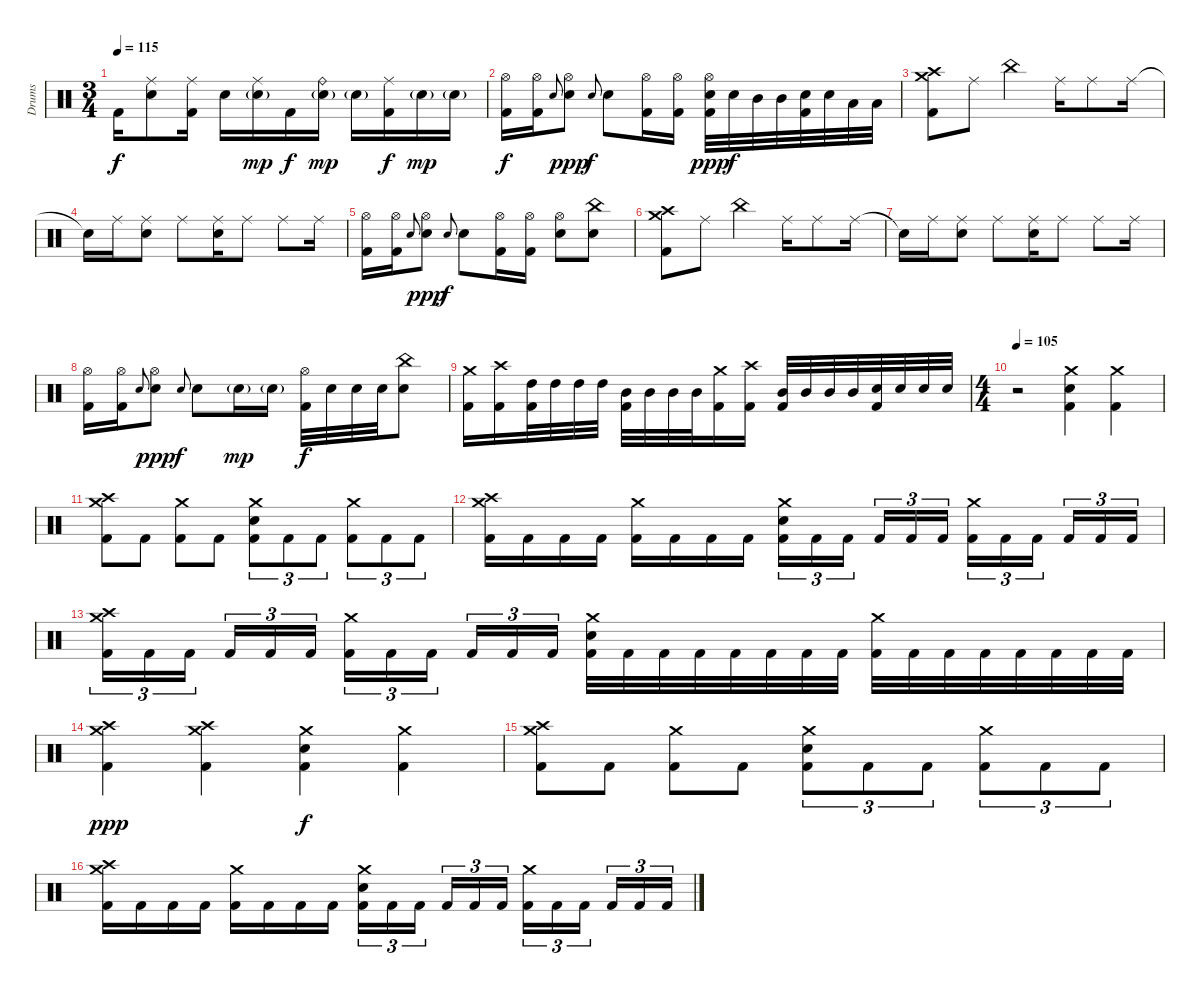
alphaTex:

\track ("Drums" "Drums") {instrument percussion}
\staff {score}
\articulation defaults
\ts (3 4)
\tempo 115
\clef neutral
\ks c "Kick (hit) 2".16{dy f}
("Ride (middle)" "Electric Snare (hit)").8 ("Ride (middle)" "Kick (hit) 2").16 "Electric Snare (hit)".16 ("Ride (middle)" "Electric Snare (hit)"{g}).16{dy mp} "Kick (hit) 2".16{dy f} ("Ride (bell)" "Electric Snare (hit)"{g}).16{dy mp} "Electric Snare (hit)"{g}.16 ("Ride (middle)" "Kick (hit) 2").16{dy f} "Electric Snare (hit)"{g}.16{dy mp} "Electric Snare (hit)"{g}.16 |
("Hi-Hat (open)" "Kick (hit) 2").16{dy f} ("Hi-Hat (open)" "Kick (hit) 2").16 "Electric Snare (hit)".8{gr onbeat} ("Hi-Hat (open)" "Electric Snare (hit)").8{dy ppp} "Electric Snare (hit)".8{gr onbeat dy f} "Electric Snare (hit)".8 ("Hi-Hat (open)" "Kick (hit) 2").16 ("Hi-Hat (open)" "Kick (hit) 2").16 ("Hi-Hat (open)" "Electric Snare (hit)" "Kick (hit) 2").32{dy ppp} "Electric Snare (hit)".32{dy f} "Mid Tom (hit)".32 "Mid Tom (hit)".32 ("Electric Snare (hit)" "Kick (hit) 2").32 "Electric Snare (hit)".32 "Low Tom (hit)".32 "Low Tom (hit)".32 |
("Crash medium (hit)" "Crash high (hit)" "Kick (hit) 2").8 "Ride (middle)".8 "China (hit)".4 "Ride (middle)".16 "Ride (middle)".8 "Ride (middle)".16 |
"Snare (hit)"{t}.16 "Ride (middle)".16 ("Ride (middle)" "Electric Snare (hit)").8 "Ride (middle)".8 ("Ride (middle)" "Electric Snare (hit)").16 "Ride (middle)".8 "Ride (middle)".8 "Ride (middle)".16 |
("Hi-Hat (open)" "Kick (hit) 2").16 ("Hi-Hat (open)" "Kick (hit) 2").16 "Electric Snare (hit)".8{gr onbeat} ("Hi-Hat (open)" "Electric Snare (hit)").8{dy ppp} "Electric Snare (hit)".8{gr onbeat dy f} "Electric Snare (hit)".8 ("Hi-Hat (open)" "Kick (hit) 2").16 ("Hi-Hat (open)" "Kick (hit) 2").16 ("Hi-Hat (open)" "Electric Snare (hit)").8 ("China (hit)" "Electric Snare (hit)").8 |
("Crash medium (hit)" "Crash high (hit)" "Kick (hit) 2").8 "Ride (middle)".8 "China (hit)".4 "Ride (middle)".16 "Ride (middle)".8 "Ride (middle)".16 |
"Snare (hit)"{t}.16 "Ride (middle)".16 ("Ride (middle)" "Electric Snare (hit)").8 "Ride (middle)".8 ("Ride (middle)" "Electric Snare (hit)").16 "Ride (middle)".8 "Ride (middle)".8 "Ride (middle)".16 |
("Hi-Hat (open)" "Kick (hit) 2").16 ("Hi-Hat (open)" "Kick (hit) 2").16 "Electric Snare (hit)".8{gr onbeat} ("Hi-Hat (open)" "Electric Snare (hit)").8{dy ppp} "Electric Snare (hit)".8{gr onbeat dy f} "Electric Snare (hit)".8 "Electric Snare (hit)"{g}.16{dy mp} "Electric Snare (hit)"{g}.16 ("Hi-Hat (open)" "Kick (hit) 2").32{dy f} "Electric Snare (hit)".32 "Electric Snare (hit)".32 "Electric Snare (hit)".32 ("China (hit)" "Electric Snare (hit)").8 |
("Crash medium (hit)" "Kick (hit) 2").16 ("Crash high (hit)" "Kick (hit) 2").16 ("High Tom (hit)" "Kick (hit) 2").32 "High Tom (hit)".32 "High Tom (hit)".32 "High Tom (hit)".32 ("Mid Tom (hit)" "Kick (hit) 2").32 "Mid Tom (hit)".32 "Mid Tom (hit)".32 "Mid Tom (hit)".32 ("Crash medium (hit)" "Kick (hit) 2").16 ("Crash high (hit)" "Kick (hit) 2").16 ("Mid Tom (hit)" "Kick (hit) 2").32 "Mid Tom (hit)".32 "Mid Tom (hit)".32 "Mid Tom (hit)".32 ("Electric Snare (hit)" "Kick (hit) 2").32 "Electric Snare (hit)".32 "Electric Snare (hit)".32 "Electric Snare (hit)".32 |
\ts (4 4)
\tempo 105
r.2 ("Crash medium (hit)" "Electric Snare (hit)" "Kick (hit) 2").4 ("Crash medium (hit)" "Kick (hit) 2").4 |
("Crash medium (hit)" "Crash high (hit)" "Kick (hit) 2").8 "Kick (hit) 2".8 ("Crash medium (hit)" "Kick (hit) 2").8 "Kick (hit) 2".8 ("Crash medium (hit)" "Electric Snare (hit)" "Kick (hit) 2").8{tu (3 2)} "Kick (hit) 2".8{tu (3 2)} "Kick (hit) 2".8{tu (3 2)} ("Crash medium (hit)" "Kick (hit) 2").8{tu (3 2)} "Kick (hit) 2".8{tu (3 2)} "Kick (hit) 2".8{tu (3 2)} |
("Crash medium (hit)" "Crash high (hit)" "Kick (hit) 2").16 "Kick (hit) 2".16 "Kick (hit) 2".16 "Kick (hit) 2".16 ("Crash medium (hit)" "Kick (hit) 2").16 "Kick (hit) 2".16 "Kick (hit) 2".16 "Kick (hit) 2".16 ("Crash medium (hit)" "Electric Snare (hit)" "Kick (hit) 2").16{tu (3 2)} "Kick (hit) 2".16{tu (3 2)} "Kick (hit) 2".16{tu (3 2) beam splitsecondary} "Kick (hit) 2".16{tu (3 2)} "Kick (hit) 2".16{tu (3 2)} "Kick (hit) 2".16{tu (3 2)} ("Crash medium (hit)" "Kick (hit) 2").16{tu (3 2)} "Kick (hit) 2".16{tu (3 2)} "Kick (hit) 2".16{tu (3 2) beam splitsecondary} "Kick (hit) 2".16{tu (3 2)} "Kick (hit) 2".16{tu (3 2)} "Kick (hit) 2".16{tu (3 2)} |
("Crash medium (hit)" "Crash high (hit)" "Kick (hit) 2").16{tu (3 2)} "Kick (hit) 2".16{tu (3 2)} "Kick (hit) 2".16{tu (3 2) beam splitsecondary} "Kick (hit) 2".16{tu (3 2)} "Kick (hit) 2".16{tu (3 2)} "Kick (hit) 2".16{tu (3 2)} ("Crash medium (hit)" "Kick (hit) 2").16{tu (3 2)} "Kick (hit) 2".16{tu (3 2)} "Kick (hit) 2".16{tu (3 2) beam splitsecondary} "Kick (hit) 2".16{tu (3 2)} "Kick (hit) 2".16{tu (3 2)} "Kick (hit) 2".16{tu (3 2)} ("Crash medium (hit)" "Electric Snare (hit)" "Kick (hit) 2").32 "Kick (hit) 2".32 "Kick (hit) 2".32 "Kick (hit) 2".32 "Kick (hit) 2".32 "Kick (hit) 2".32 "Kick (hit) 2".32 "Kick (hit) 2".32 ("Crash medium (hit)" "Kick (hit) 2").32 "Kick (hit) 2".32 "Kick (hit) 2".32 "Kick (hit) 2".32 "Kick (hit) 2".32 "Kick (hit) 2".32 "Kick (hit) 2".32 "Kick (hit) 2".32 |
("Crash medium (hit)" "Crash high (hit)" "Kick (hit) 2").4{dy ppp} ("Crash medium (hit)" "Crash high (hit)" "Kick (hit) 2").4 ("Crash medium (hit)" "Electric Snare (hit)" "Kick (hit) 2").4{dy f} ("Crash medium (hit)" "Kick (hit) 2").4 |
("Crash medium (hit)" "Crash high (hit)" "Kick (hit) 2").8 "Kick (hit) 2".8 ("Crash medium (hit)" "Kick (hit) 2").8 "Kick (hit) 2".8 ("Crash medium (hit)" "Electric Snare (hit)" "Kick (hit) 2").8{tu (3 2)} "Kick (hit) 2".8{tu (3 2)} "Kick (hit) 2".8{tu (3 2)} ("Crash medium (hit)" "Kick (hit) 2").8{tu (3 2)} "Kick (hit) 2".8{tu (3 2)} "Kick (hit) 2".8{tu (3 2)} |
("Crash medium (hit)" "Crash high (hit)" "Kick (hit) 2").16 "Kick (hit) 2".16 "Kick (hit) 2".16 "Kick (hit) 2".16 ("Crash medium (hit)" "Kick (hit) 2").16 "Kick (hit) 2".16 "Kick (hit) 2".16 "Kick (hit) 2".16 ("Crash medium (hit)" "Electric Snare (hit)" "Kick (hit) 2").16{tu (3 2)} "Kick (hit) 2".16{tu (3 2)} "Kick (hit) 2".16{tu (3 2) beam splitsecondary} "Kick (hit) 2".16{tu (3 2)} "Kick (hit) 2".16{tu (3 2)} "Kick (hit) 2".16{tu (3 2)} ("Crash medium (hit)" "Kick (hit) 2").16{tu (3 2)} "Kick (hit) 2".16{tu (3 2)} "Kick (hit) 2".16{tu (3 2) beam splitsecondary} "Kick (hit) 2".16{tu (3 2)} "Kick (hit) 2".16{tu (3 2)} "Kick (hit) 2".16{tu (3 2)}
